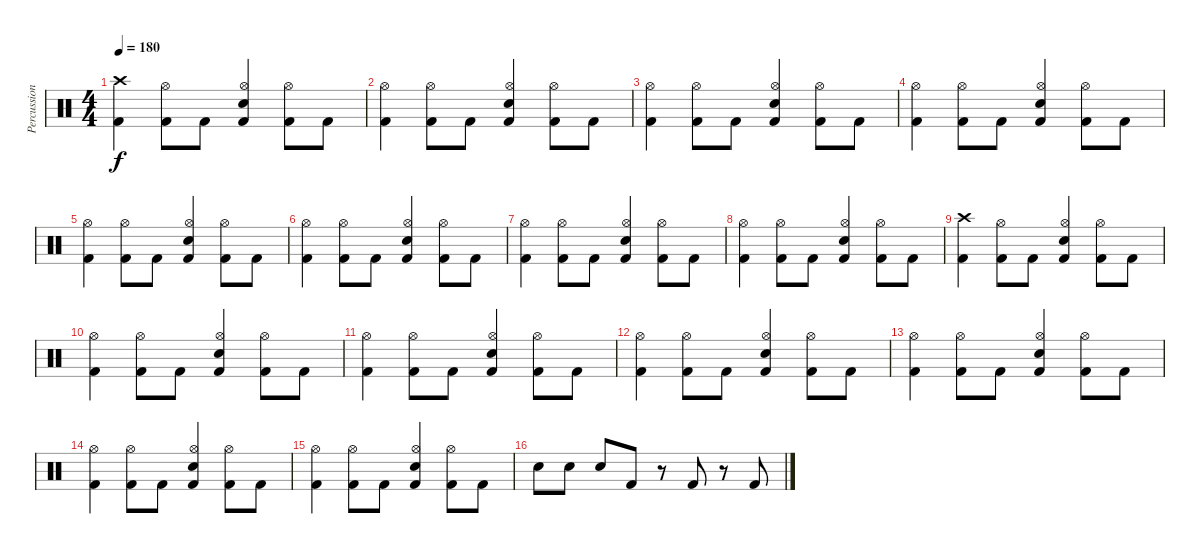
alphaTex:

\track ("Percussion" "Percussion") {instrument percussion}
\staff {score}
\articulation defaults
\ts (4 4)
\tempo 180
\clef neutral
\ks c
("Kick (hit) 2" "Crash high (hit)").4{dy f} ("Kick (hit) 2" "Hi-Hat (open)").8 "Kick (hit) 2".8 ("Kick (hit) 2" "Hi-Hat (open)" "Electric Snare (hit)").4 ("Kick (hit) 2" "Hi-Hat (open)").8 "Kick (hit) 2".8 |
("Kick (hit) 2" "Hi-Hat (open)").4 ("Kick (hit) 2" "Hi-Hat (open)").8 "Kick (hit) 2".8 ("Kick (hit) 2" "Hi-Hat (open)" "Electric Snare (hit)").4 ("Kick (hit) 2" "Hi-Hat (open)").8 "Kick (hit) 2".8 |
("Kick (hit) 2" "Hi-Hat (open)").4 ("Kick (hit) 2" "Hi-Hat (open)").8 "Kick (hit) 2".8 ("Kick (hit) 2" "Hi-Hat (open)" "Electric Snare (hit)").4 ("Kick (hit) 2" "Hi-Hat (open)").8 "Kick (hit) 2".8 |
("Kick (hit) 2" "Hi-Hat (open)").4 ("Kick (hit) 2" "Hi-Hat (open)").8 "Kick (hit) 2".8 ("Kick (hit) 2" "Hi-Hat (open)" "Electric Snare (hit)").4 ("Kick (hit) 2" "Hi-Hat (open)").8 "Kick (hit) 2".8 |
("Kick (hit) 2" "Hi-Hat (open)").4 ("Kick (hit) 2" "Hi-Hat (open)").8 "Kick (hit) 2".8 ("Kick (hit) 2" "Hi-Hat (open)" "Electric Snare (hit)").4 ("Kick (hit) 2" "Hi-Hat (open)").8 "Kick (hit) 2".8 |
("Kick (hit) 2" "Hi-Hat (open)").4 ("Kick (hit) 2" "Hi-Hat (open)").8 "Kick (hit) 2".8 ("Kick (hit) 2" "Hi-Hat (open)" "Electric Snare (hit)").4 ("Kick (hit) 2" "Hi-Hat (open)").8 "Kick (hit) 2".8 |
("Kick (hit) 2" "Hi-Hat (open)").4 ("Kick (hit) 2" "Hi-Hat (open)").8 "Kick (hit) 2".8 ("Kick (hit) 2" "Hi-Hat (open)" "Electric Snare (hit)").4 ("Kick (hit) 2" "Hi-Hat (open)").8 "Kick (hit) 2".8 |
("Kick (hit) 2" "Hi-Hat (open)").4 ("Kick (hit) 2" "Hi-Hat (open)").8 "Kick (hit) 2".8 ("Kick (hit) 2" "Hi-Hat (open)" "Electric Snare (hit)").4 ("Kick (hit) 2" "Hi-Hat (open)").8 "Kick (hit) 2".8 |
("Kick (hit) 2" "Crash high (hit)").4 ("Kick (hit) 2" "Hi-Hat (open)").8 "Kick (hit) 2".8 ("Kick (hit) 2" "Hi-Hat (open)" "Electric Snare (hit)").4 ("Kick (hit) 2" "Hi-Hat (open)").8 "Kick (hit) 2".8 |
("Kick (hit) 2" "Hi-Hat (open)").4 ("Kick (hit) 2" "Hi-Hat (open)").8 "Kick (hit) 2".8 ("Kick (hit) 2" "Hi-Hat (open)" "Electric Snare (hit)").4 ("Kick (hit) 2" "Hi-Hat (open)").8 "Kick (hit) 2".8 |
("Kick (hit) 2" "Hi-Hat (open)").4 ("Kick (hit) 2" "Hi-Hat (open)").8 "Kick (hit) 2".8 ("Kick (hit) 2" "Hi-Hat (open)" "Electric Snare (hit)").4 ("Kick (hit) 2" "Hi-Hat (open)").8 "Kick (hit) 2".8 |
("Kick (hit) 2" "Hi-Hat (open)").4 ("Kick (hit) 2" "Hi-Hat (open)").8 "Kick (hit) 2".8 ("Kick (hit) 2" "Hi-Hat (open)" "Electric Snare (hit)").4 ("Kick (hit) 2" "Hi-Hat (open)").8 "Kick (hit) 2".8 |
("Kick (hit) 2" "Hi-Hat (open)").4 ("Kick (hit) 2" "Hi-Hat (open)").8 "Kick (hit) 2".8 ("Kick (hit) 2" "Hi-Hat (open)" "Electric Snare (hit)").4 ("Kick (hit) 2" "Hi-Hat (open)").8 "Kick (hit) 2".8 |
("Kick (hit) 2" "Hi-Hat (open)").4 ("Kick (hit) 2" "Hi-Hat (open)").8 "Kick (hit) 2".8 ("Kick (hit) 2" "Hi-Hat (open)" "Electric Snare (hit)").4 ("Kick (hit) 2" "Hi-Hat (open)").8 "Kick (hit) 2".8 |
("Kick (hit) 2" "Hi-Hat (open)").4 ("Kick (hit) 2" "Hi-Hat (open)").8 "Kick (hit) 2".8 ("Kick (hit) 2" "Hi-Hat (open)" "Electric Snare (hit)").4 ("Kick (hit) 2" "Hi-Hat (open)").8 "Kick (hit) 2".8 |
"Electric Snare (hit)".8 "Electric Snare (hit)".8 "Electric Snare (hit)".8 "Kick (hit) 2".8 r.8 "Kick (hit) 2".8 r.8 "Kick (hit) 2".8
